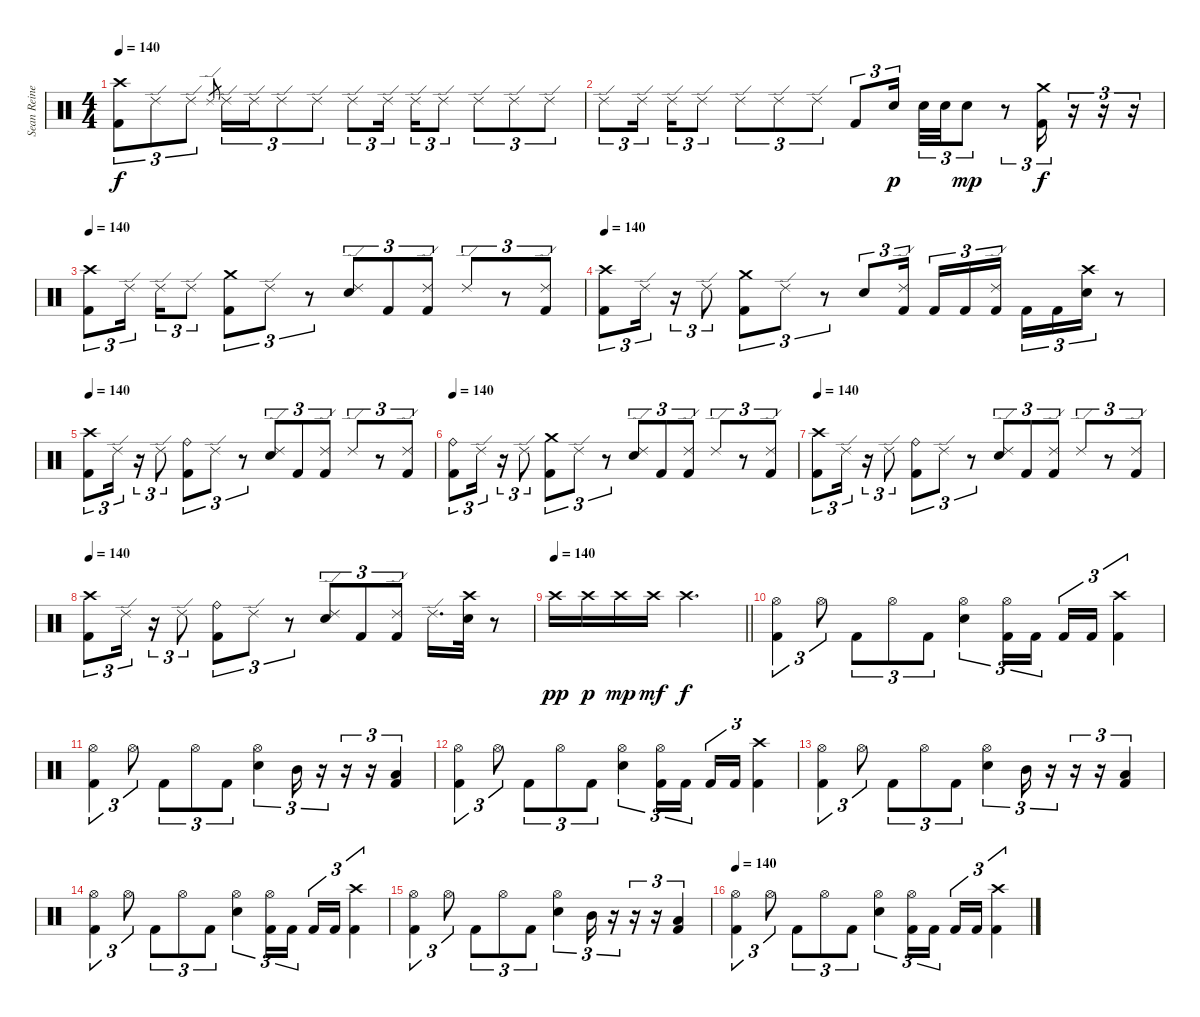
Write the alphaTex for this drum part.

\track ("Sean Reinert" "Sean Reine") {instrument percussion}
\staff {score}
\articulation defaults
\ts (4 4)
\tempo 140
\clef neutral
\ks c
("Crash high (hit)" "Kick (hit) 2").8{tu (3 2) dy f} "Ride (edge) 2".8{tu (3 2)} "Ride (edge) 2".8{tu (3 2)} "Ride (edge) 2".8{gr} "Ride (edge) 2".16{tu (3 2)} "Ride (edge) 2".16{tu (3 2)} "Ride (edge) 2".8{tu (3 2)} "Ride (edge) 2".8{tu (3 2)} "Ride (edge) 2".8{tu (3 2)} "Ride (edge) 2".16{tu (3 2) beam splitsecondary} "Ride (edge) 2".16{tu (3 2)} "Ride (edge) 2".8{tu (3 2)} "Ride (edge) 2".8{tu (3 2)} "Ride (edge) 2".8{tu (3 2)} "Ride (edge) 2".8{tu (3 2)} |
"Ride (edge) 2".8{tu (3 2)} "Ride (edge) 2".16{tu (3 2) beam splitsecondary} "Ride (edge) 2".16{tu (3 2)} "Ride (edge) 2".8{tu (3 2)} "Ride (edge) 2".8{tu (3 2)} "Ride (edge) 2".8{tu (3 2)} "Ride (edge) 2".8{tu (3 2)} "Kick (hit) 2".8{tu (3 2)} "Electric Snare (hit)".16{tu (3 2) dy p beam splitsecondary} "Electric Snare (hit)".32{tu (3 2)} "Electric Snare (hit)".32{tu (3 2)} "Electric Snare (hit)".8{tu (3 2) dy mp} r.8{tu (3 2)} ("Crash medium (hit)" "Kick (hit) 2").16{tu (3 2) dy f} r.16{tu (3 2)} r.16{tu (3 2)} r.16{tu (3 2)} |
\tempo 140
("Crash high (hit)" "Kick (hit) 2").8{tu (3 2)} "Ride (edge) 2".16{tu (3 2) beam splitsecondary} "Ride (edge) 2".16{tu (3 2)} "Ride (edge) 2".8{tu (3 2)} ("Crash medium (hit)" "Kick (hit) 2").8{tu (3 2)} "Ride (edge) 2".8{tu (3 2)} r.8{tu (3 2)} ("Ride (edge) 2" "Electric Snare (hit)").8{tu (3 2)} "Kick (hit) 2".8{tu (3 2)} ("Ride (edge) 2" "Kick (hit) 2").8{tu (3 2)} "Ride (edge) 2".8{tu (3 2)} r.8{tu (3 2)} ("Ride (edge) 2" "Kick (hit) 2").8{tu (3 2)} |
\tempo 140
("Crash high (hit)" "Kick (hit) 2").8{tu (3 2)} "Ride (edge) 2".16{tu (3 2)} r.16{tu (3 2)} "Ride (edge) 2".8{tu (3 2)} ("Crash medium (hit)" "Kick (hit) 2").8{tu (3 2)} "Ride (edge) 2".8{tu (3 2)} r.8{tu (3 2)} "Electric Snare (hit)".8{tu (3 2)} ("Ride (edge) 2" "Kick (hit) 2").16{tu (3 2) beam splitsecondary} "Kick (hit) 2".16{tu (3 2)} "Kick (hit) 2".16{tu (3 2)} ("Ride (edge) 2" "Kick (hit) 2").16{tu (3 2)} "Kick (hit) 2".16{tu (3 2)} "Kick (hit) 2".16{tu (3 2)} ("Crash high (hit)" "Electric Snare (hit)").16{tu (3 2)} r.8 |
\tempo 140
("Crash high (hit)" "Kick (hit) 2").8{tu (3 2)} "Ride (edge) 2".16{tu (3 2)} r.16{tu (3 2)} "Ride (edge) 2".8{tu (3 2)} ("Ride (bell)" "Kick (hit) 2").8{tu (3 2)} "Ride (edge) 2".8{tu (3 2)} r.8{tu (3 2)} ("Ride (edge) 2" "Electric Snare (hit)").8{tu (3 2)} "Kick (hit) 2".8{tu (3 2)} ("Ride (edge) 2" "Kick (hit) 2").8{tu (3 2)} "Ride (edge) 2".8{tu (3 2)} r.8{tu (3 2)} ("Ride (edge) 2" "Kick (hit) 2").8{tu (3 2)} |
\tempo 140
("Ride (bell)" "Kick (hit) 2").8{tu (3 2)} "Ride (edge) 2".16{tu (3 2)} r.16{tu (3 2)} "Ride (edge) 2".8{tu (3 2)} ("Crash medium (hit)" "Kick (hit) 2").8{tu (3 2)} "Ride (edge) 2".8{tu (3 2)} r.8{tu (3 2)} ("Ride (edge) 2" "Electric Snare (hit)").8{tu (3 2)} "Kick (hit) 2".8{tu (3 2)} ("Ride (edge) 2" "Kick (hit) 2").8{tu (3 2)} "Ride (edge) 2".8{tu (3 2)} r.8{tu (3 2)} ("Ride (edge) 2" "Kick (hit) 2").8{tu (3 2)} |
\tempo 140
("Crash high (hit)" "Kick (hit) 2").8{tu (3 2)} "Ride (edge) 2".16{tu (3 2)} r.16{tu (3 2)} "Ride (edge) 2".8{tu (3 2)} ("Ride (bell)" "Kick (hit) 2").8{tu (3 2)} "Ride (edge) 2".8{tu (3 2)} r.8{tu (3 2)} ("Ride (edge) 2" "Electric Snare (hit)").8{tu (3 2)} "Kick (hit) 2".8{tu (3 2)} ("Ride (edge) 2" "Kick (hit) 2").8{tu (3 2)} "Ride (edge) 2".8{tu (3 2)} r.8{tu (3 2)} ("Ride (edge) 2" "Kick (hit) 2").8{tu (3 2)} |
\tempo 140
("Crash high (hit)" "Kick (hit) 2").8{tu (3 2)} "Ride (edge) 2".16{tu (3 2)} r.16{tu (3 2)} "Ride (edge) 2".8{tu (3 2)} ("Ride (bell)" "Kick (hit) 2").8{tu (3 2)} "Ride (edge) 2".8{tu (3 2)} r.8{tu (3 2)} ("Ride (edge) 2" "Electric Snare (hit)").8{tu (3 2)} "Kick (hit) 2".8{tu (3 2)} ("Ride (edge) 2" "Kick (hit) 2").8{tu (3 2)} "Ride (edge) 2".16{d} ("Crash high (hit)" "Electric Snare (hit)").32 r.8 |
\tempo 140
\barLineRight lightlight "Crash high (hit)".16{dy pp} "Crash high (hit)".16{dy p} "Crash high (hit)".16{dy mp} "Crash high (hit)".16{dy mf} "Crash high (hit)".2{d dy f}
|
("Hi-Hat (open)" "Kick (hit) 2").4{tu (3 2)} "Hi-Hat (open)".8{tu (3 2)} "Kick (hit) 2".8{tu (3 2)} "Hi-Hat (open)".8{tu (3 2)} "Kick (hit) 2".8{tu (3 2)} ("Hi-Hat (open)" "Electric Snare (hit)").4{tu (3 2)} ("Hi-Hat (open)" "Kick (hit) 2").16{tu (3 2)} "Kick (hit) 2".16{tu (3 2)} "Kick (hit) 2".16{tu (3 2)} "Kick (hit) 2".16{tu (3 2)} ("Crash high (hit)" "Kick (hit) 2").4{tu (3 2)} |
("Hi-Hat (open)" "Kick (hit) 2").4{tu (3 2)} "Hi-Hat (open)".8{tu (3 2)} "Kick (hit) 2".8{tu (3 2)} "Hi-Hat (open)".8{tu (3 2)} "Kick (hit) 2".8{tu (3 2)} ("Hi-Hat (open)" "Electric Snare (hit)").4{tu (3 2)} "Mid Tom (hit)".16{tu (3 2)} r.16{tu (3 2)} r.16{tu (3 2)} r.16{tu (3 2)} ("Low Tom (hit)" "Kick (hit) 2").4{tu (3 2)} |
("Hi-Hat (open)" "Kick (hit) 2").4{tu (3 2)} "Hi-Hat (open)".8{tu (3 2)} "Kick (hit) 2".8{tu (3 2)} "Hi-Hat (open)".8{tu (3 2)} "Kick (hit) 2".8{tu (3 2)} ("Hi-Hat (open)" "Electric Snare (hit)").4{tu (3 2)} ("Hi-Hat (open)" "Kick (hit) 2").16{tu (3 2)} "Kick (hit) 2".16{tu (3 2)} "Kick (hit) 2".16{tu (3 2)} "Kick (hit) 2".16{tu (3 2)} ("Crash high (hit)" "Kick (hit) 2").4{tu (3 2)} |
("Hi-Hat (open)" "Kick (hit) 2").4{tu (3 2)} "Hi-Hat (open)".8{tu (3 2)} "Kick (hit) 2".8{tu (3 2)} "Hi-Hat (open)".8{tu (3 2)} "Kick (hit) 2".8{tu (3 2)} ("Hi-Hat (open)" "Electric Snare (hit)").4{tu (3 2)} "Mid Tom (hit)".16{tu (3 2)} r.16{tu (3 2)} r.16{tu (3 2)} r.16{tu (3 2)} ("Low Tom (hit)" "Kick (hit) 2").4{tu (3 2)} |
("Hi-Hat (open)" "Kick (hit) 2").4{tu (3 2)} "Hi-Hat (open)".8{tu (3 2)} "Kick (hit) 2".8{tu (3 2)} "Hi-Hat (open)".8{tu (3 2)} "Kick (hit) 2".8{tu (3 2)} ("Hi-Hat (open)" "Electric Snare (hit)").4{tu (3 2)} ("Hi-Hat (open)" "Kick (hit) 2").16{tu (3 2)} "Kick (hit) 2".16{tu (3 2)} "Kick (hit) 2".16{tu (3 2)} "Kick (hit) 2".16{tu (3 2)} ("Crash high (hit)" "Kick (hit) 2").4{tu (3 2)} |
("Hi-Hat (open)" "Kick (hit) 2").4{tu (3 2)} "Hi-Hat (open)".8{tu (3 2)} "Kick (hit) 2".8{tu (3 2)} "Hi-Hat (open)".8{tu (3 2)} "Kick (hit) 2".8{tu (3 2)} ("Hi-Hat (open)" "Electric Snare (hit)").4{tu (3 2)} "Mid Tom (hit)".16{tu (3 2)} r.16{tu (3 2)} r.16{tu (3 2)} r.16{tu (3 2)} ("Low Tom (hit)" "Kick (hit) 2").4{tu (3 2)} |
\tempo 140
("Hi-Hat (open)" "Kick (hit) 2").4{tu (3 2)} "Hi-Hat (open)".8{tu (3 2)} "Kick (hit) 2".8{tu (3 2)} "Hi-Hat (open)".8{tu (3 2)} "Kick (hit) 2".8{tu (3 2)} ("Hi-Hat (open)" "Electric Snare (hit)").4{tu (3 2)} ("Hi-Hat (open)" "Kick (hit) 2").16{tu (3 2)} "Kick (hit) 2".16{tu (3 2)} "Kick (hit) 2".16{tu (3 2)} "Kick (hit) 2".16{tu (3 2)} ("Crash high (hit)" "Kick (hit) 2").4{tu (3 2)}
